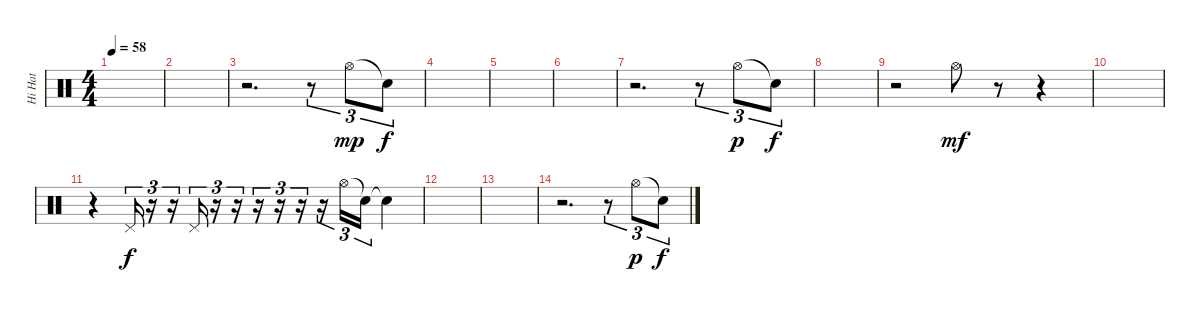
\track ("Hi Hat" "Hi Hat") {instrument percussion}
\staff {score}
\articulation defaults
\ts (4 4)
\tempo 58
\clef neutral
\ks c
|
|
r.2{d} r.8{tu (3 2)} "Hi-Hat (open)".8{tu (3 2) dy mp} "Snare (hit)"{t}.8{tu (3 2) dy f} |
|
|
|
r.2{d} r.8{tu (3 2)} "Hi-Hat (open)".8{tu (3 2) dy p} "Snare (hit)"{t}.8{tu (3 2) dy f} |
|
r.2 "Hi-Hat (open)".8{dy mf} r.8 r.4 |
|
r.4 "Pedal Hi-Hat (hit)".16{tu (3 2) dy f} r.16{tu (3 2)} r.16{tu (3 2)} "Pedal Hi-Hat (hit)".16{tu (3 2)} r.16{tu (3 2)} r.16{tu (3 2)} r.16{tu (3 2)} r.16{tu (3 2)} r.16{tu (3 2)} r.16{tu (3 2)} "Hi-Hat (open)".16{tu (3 2)} "Snare (hit)"{t}.16{tu (3 2)} "Snare (hit)"{t}.4 |
|
|
r.2{d} r.8{tu (3 2)} "Hi-Hat (open)".8{tu (3 2) dy p} "Snare (hit)"{t}.8{tu (3 2) dy f}
